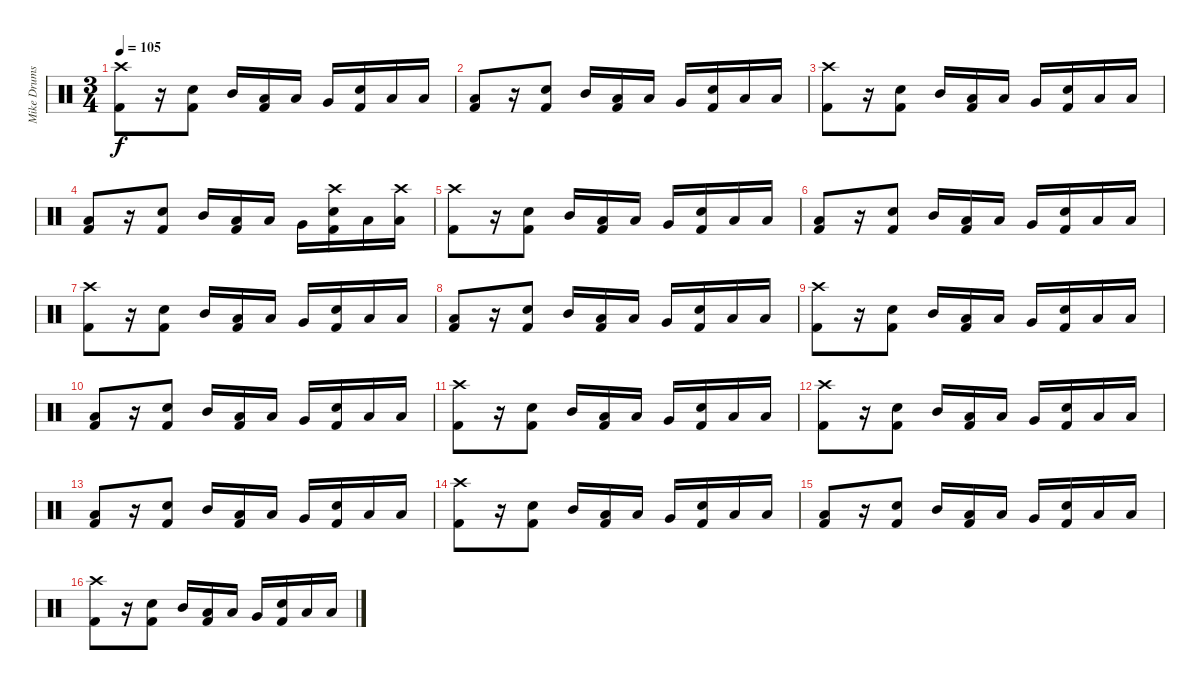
\track ("Mike Drums" "Mike Drums") {instrument percussion}
\staff {score}
\articulation defaults
\ts (3 4)
\tempo 105
\clef neutral
\ks c
("Crash high (hit)" "Kick (hit) 2").8{dy f} r.16 ("Electric Snare (hit)" "Kick (hit) 2").8 "Mid Tom (hit)".16 ("Low Tom (hit)" "Kick (hit) 2").16 "Low Tom (hit)".16 "Very Low Tom (hit)".16 ("Electric Snare (hit)" "Kick (hit) 2").16 "Low Floor Tom (hit)".16 "Low Floor Tom (hit)".16 |
("Low Floor Tom (hit)" "Kick (hit) 2").8 r.16 ("Electric Snare (hit)" "Kick (hit) 2").8 "Mid Tom (hit)".16 ("Low Tom (hit)" "Kick (hit) 2").16 "Low Tom (hit)".16 "Very Low Tom (hit)".16 ("Electric Snare (hit)" "Kick (hit) 2").16 "Low Floor Tom (hit)".16 "Low Floor Tom (hit)".16 |
("Crash high (hit)" "Kick (hit) 2").8 r.16 ("Electric Snare (hit)" "Kick (hit) 2").8 "Mid Tom (hit)".16 ("Low Tom (hit)" "Kick (hit) 2").16 "Low Tom (hit)".16 "Very Low Tom (hit)".16 ("Electric Snare (hit)" "Kick (hit) 2").16 "Low Floor Tom (hit)".16 "Low Floor Tom (hit)".16 |
("Low Floor Tom (hit)" "Kick (hit) 2").8 r.16 ("Electric Snare (hit)" "Kick (hit) 2").8 "Mid Tom (hit)".16 ("Low Tom (hit)" "Kick (hit) 2").16 "Low Tom (hit)".16 "Very Low Tom (hit)".16 ("Electric Snare (hit)" "Crash high (hit)" "Kick (hit) 2").16 "Low Floor Tom (hit)".16 ("Low Floor Tom (hit)" "Crash high (hit)").16 |
("Crash high (hit)" "Kick (hit) 2").8 r.16 ("Electric Snare (hit)" "Kick (hit) 2").8 "Mid Tom (hit)".16 ("Low Tom (hit)" "Kick (hit) 2").16 "Low Tom (hit)".16 "Very Low Tom (hit)".16 ("Electric Snare (hit)" "Kick (hit) 2").16 "Low Floor Tom (hit)".16 "Low Floor Tom (hit)".16 |
("Low Floor Tom (hit)" "Kick (hit) 2").8 r.16 ("Electric Snare (hit)" "Kick (hit) 2").8 "Mid Tom (hit)".16 ("Low Tom (hit)" "Kick (hit) 2").16 "Low Tom (hit)".16 "Very Low Tom (hit)".16 ("Electric Snare (hit)" "Kick (hit) 2").16 "Low Floor Tom (hit)".16 "Low Floor Tom (hit)".16 |
("Crash high (hit)" "Kick (hit) 2").8 r.16 ("Electric Snare (hit)" "Kick (hit) 2").8 "Mid Tom (hit)".16 ("Low Tom (hit)" "Kick (hit) 2").16 "Low Tom (hit)".16 "Very Low Tom (hit)".16 ("Electric Snare (hit)" "Kick (hit) 2").16 "Low Floor Tom (hit)".16 "Low Floor Tom (hit)".16 |
("Low Floor Tom (hit)" "Kick (hit) 2").8 r.16 ("Electric Snare (hit)" "Kick (hit) 2").8 "Mid Tom (hit)".16 ("Low Tom (hit)" "Kick (hit) 2").16 "Low Tom (hit)".16 "Very Low Tom (hit)".16 ("Electric Snare (hit)" "Kick (hit) 2").16 "Low Floor Tom (hit)".16 "Low Floor Tom (hit)".16 |
("Crash high (hit)" "Kick (hit) 2").8 r.16 ("Electric Snare (hit)" "Kick (hit) 2").8 "Mid Tom (hit)".16 ("Low Tom (hit)" "Kick (hit) 2").16 "Low Tom (hit)".16 "Very Low Tom (hit)".16 ("Electric Snare (hit)" "Kick (hit) 2").16 "Low Floor Tom (hit)".16 "Low Floor Tom (hit)".16 |
("Low Floor Tom (hit)" "Kick (hit) 2").8 r.16 ("Electric Snare (hit)" "Kick (hit) 2").8 "Mid Tom (hit)".16 ("Low Tom (hit)" "Kick (hit) 2").16 "Low Tom (hit)".16 "Very Low Tom (hit)".16 ("Electric Snare (hit)" "Kick (hit) 2").16 "Low Floor Tom (hit)".16 "Low Floor Tom (hit)".16 |
("Crash high (hit)" "Kick (hit) 2").8 r.16 ("Electric Snare (hit)" "Kick (hit) 2").8 "Mid Tom (hit)".16 ("Low Tom (hit)" "Kick (hit) 2").16 "Low Tom (hit)".16 "Very Low Tom (hit)".16 ("Electric Snare (hit)" "Kick (hit) 2").16 "Low Floor Tom (hit)".16 "Low Floor Tom (hit)".16 |
("Crash high (hit)" "Kick (hit) 2").8 r.16 ("Electric Snare (hit)" "Kick (hit) 2").8 "Mid Tom (hit)".16 ("Low Tom (hit)" "Kick (hit) 2").16 "Low Tom (hit)".16 "Very Low Tom (hit)".16 ("Electric Snare (hit)" "Kick (hit) 2").16 "Low Floor Tom (hit)".16 "Low Floor Tom (hit)".16 |
("Low Floor Tom (hit)" "Kick (hit) 2").8 r.16 ("Electric Snare (hit)" "Kick (hit) 2").8 "Mid Tom (hit)".16 ("Low Tom (hit)" "Kick (hit) 2").16 "Low Tom (hit)".16 "Very Low Tom (hit)".16 ("Electric Snare (hit)" "Kick (hit) 2").16 "Low Floor Tom (hit)".16 "Low Floor Tom (hit)".16 |
("Crash high (hit)" "Kick (hit) 2").8 r.16 ("Electric Snare (hit)" "Kick (hit) 2").8 "Mid Tom (hit)".16 ("Low Tom (hit)" "Kick (hit) 2").16 "Low Tom (hit)".16 "Very Low Tom (hit)".16 ("Electric Snare (hit)" "Kick (hit) 2").16 "Low Floor Tom (hit)".16 "Low Floor Tom (hit)".16 |
("Low Floor Tom (hit)" "Kick (hit) 2").8 r.16 ("Electric Snare (hit)" "Kick (hit) 2").8 "Mid Tom (hit)".16 ("Low Tom (hit)" "Kick (hit) 2").16 "Low Tom (hit)".16 "Very Low Tom (hit)".16 ("Electric Snare (hit)" "Kick (hit) 2").16 "Low Floor Tom (hit)".16 "Low Floor Tom (hit)".16 |
("Crash high (hit)" "Kick (hit) 2").8 r.16 ("Electric Snare (hit)" "Kick (hit) 2").8 "Mid Tom (hit)".16 ("Low Tom (hit)" "Kick (hit) 2").16 "Low Tom (hit)".16 "Very Low Tom (hit)".16 ("Electric Snare (hit)" "Kick (hit) 2").16 "Low Floor Tom (hit)".16 "Low Floor Tom (hit)".16
